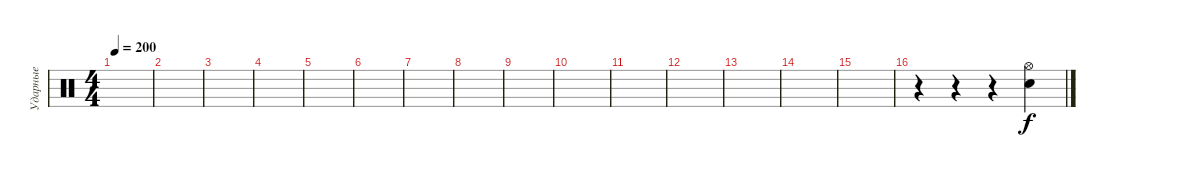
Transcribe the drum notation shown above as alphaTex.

\track ("Ударные" "Ударные") {instrument percussion}
\staff {score}
\articulation defaults
\ts (4 4)
\tempo 200
\clef neutral
\ks c
|
|
|
|
|
|
|
|
|
|
|
|
|
|
|
r.4 r.4 r.4 ("Hi-Hat (open)" "Electric Snare (hit)").4
